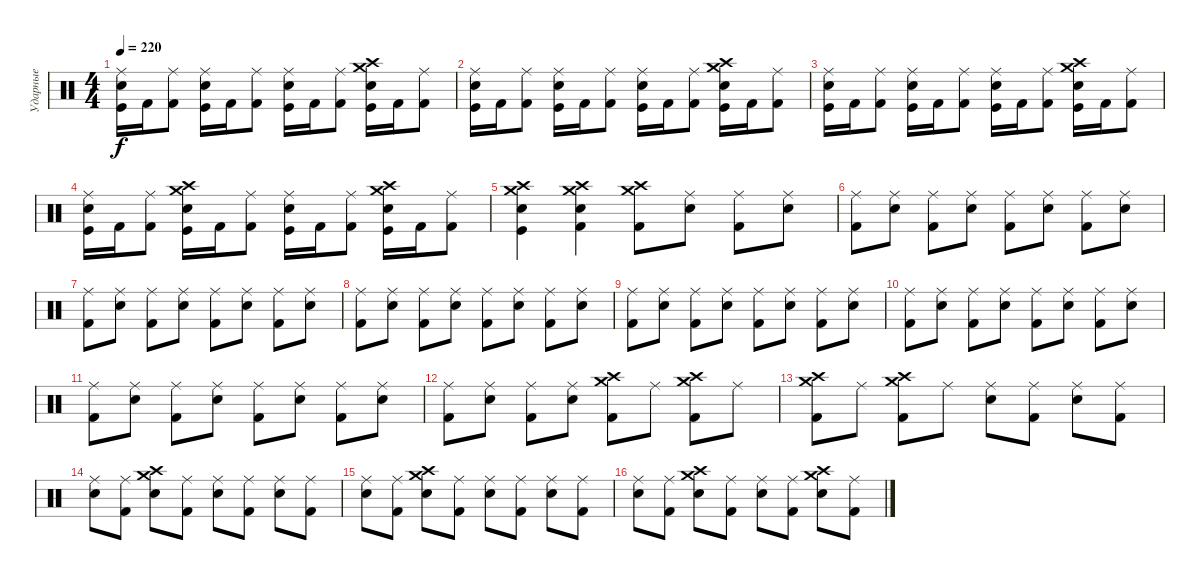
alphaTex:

\track ("Ударные" "Ударные") {instrument percussion}
\staff {score}
\articulation defaults
\ts (4 4)
\tempo 220
\clef neutral
\ks c
("Ride (middle)" "Snare (hit) 2" "Kick (hit)").16{dy f} "Kick (hit) 2".16 ("Ride (middle)" "Kick (hit) 2").8 ("Ride (middle)" "Snare (hit) 2" "Kick (hit)").16 "Kick (hit) 2".16 ("Ride (middle)" "Kick (hit) 2").8 ("Ride (middle)" "Snare (hit) 2" "Kick (hit)").16 "Kick (hit) 2".16 ("Ride (middle)" "Kick (hit) 2").8 ("Crash high (hit)" "Crash medium (hit)" "Snare (hit) 2" "Kick (hit)").16 "Kick (hit) 2".16 ("Ride (middle)" "Kick (hit) 2").8 |
("Ride (middle)" "Snare (hit) 2" "Kick (hit)").16 "Kick (hit) 2".16 ("Ride (middle)" "Kick (hit) 2").8 ("Ride (middle)" "Snare (hit) 2" "Kick (hit)").16 "Kick (hit) 2".16 ("Ride (middle)" "Kick (hit) 2").8 ("Ride (middle)" "Snare (hit) 2" "Kick (hit)").16 "Kick (hit) 2".16 ("Ride (middle)" "Kick (hit) 2").8 ("Crash high (hit)" "Crash medium (hit)" "Snare (hit) 2" "Kick (hit)").16 "Kick (hit) 2".16 ("Ride (middle)" "Kick (hit) 2").8 |
("Ride (middle)" "Snare (hit) 2" "Kick (hit)").16 "Kick (hit) 2".16 ("Ride (middle)" "Kick (hit) 2").8 ("Ride (middle)" "Snare (hit) 2" "Kick (hit)").16 "Kick (hit) 2".16 ("Ride (middle)" "Kick (hit) 2").8 ("Ride (middle)" "Snare (hit) 2" "Kick (hit)").16 "Kick (hit) 2".16 ("Ride (middle)" "Kick (hit) 2").8 ("Crash high (hit)" "Crash medium (hit)" "Snare (hit) 2" "Kick (hit)").16 "Kick (hit) 2".16 ("Ride (middle)" "Kick (hit) 2").8 |
("Ride (middle)" "Snare (hit) 2" "Kick (hit)").16 "Kick (hit) 2".16 ("Ride (middle)" "Kick (hit) 2").8 ("Crash high (hit)" "Snare (hit) 2" "Crash medium (hit)" "Kick (hit)").16 "Kick (hit) 2".16 ("Ride (middle)" "Kick (hit) 2").8 ("Ride (middle)" "Snare (hit) 2" "Kick (hit)").16 "Kick (hit) 2".16 ("Ride (middle)" "Kick (hit) 2").8 ("Crash high (hit)" "Crash medium (hit)" "Snare (hit) 2" "Kick (hit)").16 "Kick (hit) 2".16 ("Ride (middle)" "Kick (hit) 2").8 |
("Crash medium (hit)" "Crash high (hit)" "Snare (hit) 2" "Kick (hit)").4 ("Crash high (hit)" "Crash medium (hit)" "Snare (hit) 2" "Kick (hit) 2").4 ("Crash high (hit)" "Crash medium (hit)" "Kick (hit) 2").8 ("Ride (middle)" "Snare (hit) 2").8 ("Ride (middle)" "Kick (hit) 2").8 ("Ride (middle)" "Snare (hit) 2").8 |
("Ride (middle)" "Kick (hit) 2").8 ("Ride (middle)" "Snare (hit) 2").8 ("Ride (middle)" "Kick (hit) 2").8 ("Ride (middle)" "Snare (hit) 2").8 ("Ride (middle)" "Kick (hit) 2").8 ("Ride (middle)" "Snare (hit) 2").8 ("Ride (middle)" "Kick (hit) 2").8 ("Ride (middle)" "Snare (hit) 2").8 |
("Ride (middle)" "Kick (hit) 2").8 ("Ride (middle)" "Snare (hit) 2").8 ("Ride (middle)" "Kick (hit) 2").8 ("Ride (middle)" "Snare (hit) 2").8 ("Ride (middle)" "Kick (hit) 2").8 ("Ride (middle)" "Snare (hit) 2").8 ("Ride (middle)" "Kick (hit) 2").8 ("Ride (middle)" "Snare (hit) 2").8 |
("Ride (middle)" "Kick (hit) 2").8 ("Ride (middle)" "Snare (hit) 2").8 ("Ride (middle)" "Kick (hit) 2").8 ("Ride (middle)" "Snare (hit) 2").8 ("Ride (middle)" "Kick (hit) 2").8 ("Ride (middle)" "Snare (hit) 2").8 ("Ride (middle)" "Kick (hit) 2").8 ("Ride (middle)" "Snare (hit) 2").8 |
("Ride (middle)" "Kick (hit) 2").8 ("Ride (middle)" "Snare (hit) 2").8 ("Ride (middle)" "Kick (hit) 2").8 ("Ride (middle)" "Snare (hit) 2").8 ("Ride (middle)" "Kick (hit) 2").8 ("Ride (middle)" "Snare (hit) 2").8 ("Ride (middle)" "Kick (hit) 2").8 ("Ride (middle)" "Snare (hit) 2").8 |
("Ride (middle)" "Kick (hit) 2").8 ("Ride (middle)" "Snare (hit) 2").8 ("Ride (middle)" "Kick (hit) 2").8 ("Ride (middle)" "Snare (hit) 2").8 ("Ride (middle)" "Kick (hit) 2").8 ("Ride (middle)" "Snare (hit) 2").8 ("Ride (middle)" "Kick (hit) 2").8 ("Ride (middle)" "Snare (hit) 2").8 |
("Ride (middle)" "Kick (hit) 2").8 ("Ride (middle)" "Snare (hit) 2").8 ("Ride (middle)" "Kick (hit) 2").8 ("Ride (middle)" "Snare (hit) 2").8 ("Ride (middle)" "Kick (hit) 2").8 ("Ride (middle)" "Snare (hit) 2").8 ("Ride (middle)" "Kick (hit) 2").8 ("Ride (middle)" "Snare (hit) 2").8 |
("Ride (middle)" "Kick (hit) 2").8 ("Ride (middle)" "Snare (hit) 2").8 ("Ride (middle)" "Kick (hit) 2").8 ("Ride (middle)" "Snare (hit) 2").8 ("Crash high (hit)" "Crash medium (hit)" "Kick (hit) 2").8 "Ride (middle)".8 ("Crash high (hit)" "Crash medium (hit)" "Kick (hit) 2").8 "Ride (middle)".8 |
("Crash high (hit)" "Crash medium (hit)" "Kick (hit) 2").8 "Ride (middle)".8 ("Crash high (hit)" "Crash medium (hit)" "Kick (hit) 2").8 "Ride (middle)".8 ("Ride (middle)" "Snare (hit) 2").8 ("Ride (middle)" "Kick (hit) 2").8 ("Ride (middle)" "Snare (hit) 2").8 ("Ride (middle)" "Kick (hit) 2").8 |
("Ride (middle)" "Snare (hit) 2").8 ("Ride (middle)" "Kick (hit) 2").8 ("Crash high (hit)" "Crash medium (hit)" "Snare (hit) 2").8 ("Ride (middle)" "Kick (hit) 2").8 ("Ride (middle)" "Snare (hit) 2").8 ("Ride (middle)" "Kick (hit) 2").8 ("Ride (middle)" "Snare (hit) 2").8 ("Ride (middle)" "Kick (hit) 2").8 |
("Ride (middle)" "Snare (hit) 2").8 ("Ride (middle)" "Kick (hit) 2").8 ("Crash high (hit)" "Crash medium (hit)" "Snare (hit) 2").8 ("Ride (middle)" "Kick (hit) 2").8 ("Ride (middle)" "Snare (hit) 2").8 ("Ride (middle)" "Kick (hit) 2").8 ("Ride (middle)" "Snare (hit) 2").8 ("Ride (middle)" "Kick (hit) 2").8 |
("Ride (middle)" "Snare (hit) 2").8 ("Ride (middle)" "Kick (hit) 2").8 ("Crash high (hit)" "Crash medium (hit)" "Snare (hit) 2").8 ("Ride (middle)" "Kick (hit) 2").8 ("Ride (middle)" "Snare (hit) 2").8 ("Ride (middle)" "Kick (hit) 2").8 ("Crash high (hit)" "Snare (hit) 2" "Crash medium (hit)").8 ("Ride (middle)" "Kick (hit) 2").8
